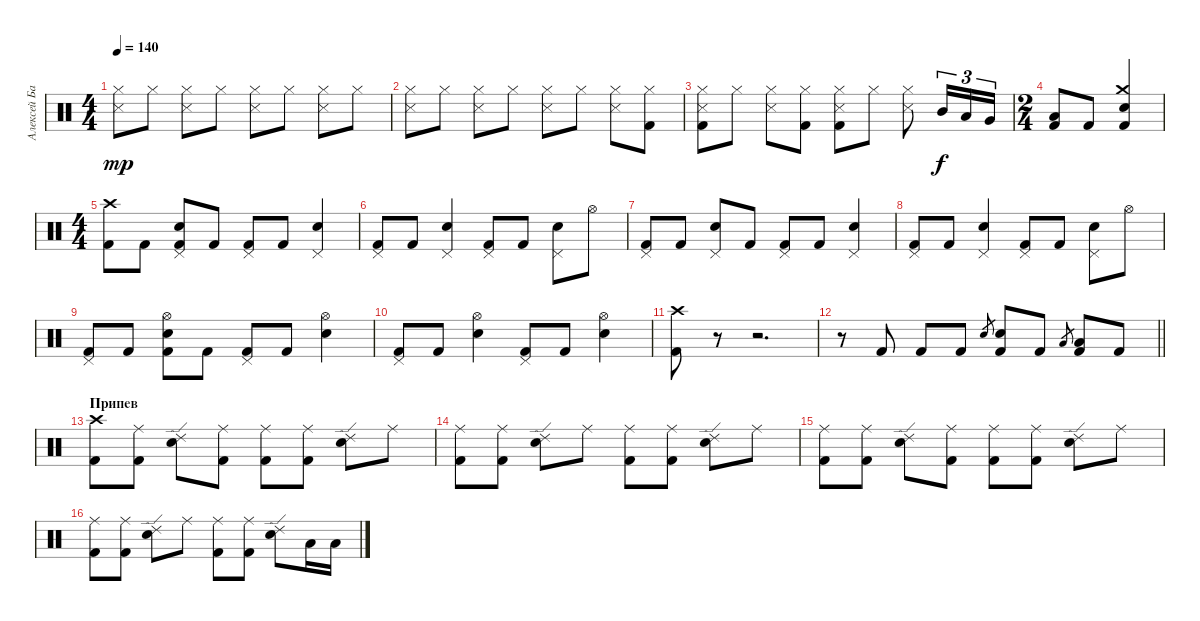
\track ("Алексей Барзилович" "Алексей Ба") {instrument percussion}
\staff {score}
\articulation defaults
\ts (4 4)
\tempo 140
\clef neutral
\ks c
("Hi-Hat (closed)" "Snare (side stick) 3").8{dy mp} "Hi-Hat (closed)".8 ("Hi-Hat (closed)" "Snare (side stick) 3").8 "Hi-Hat (closed)".8 ("Hi-Hat (closed)" "Snare (side stick) 3").8 "Hi-Hat (closed)".8 ("Hi-Hat (closed)" "Snare (side stick) 3").8 "Hi-Hat (closed)".8 |
("Hi-Hat (closed)" "Snare (side stick) 3").8 "Hi-Hat (closed)".8 ("Hi-Hat (closed)" "Snare (side stick) 3").8 "Hi-Hat (closed)".8 ("Hi-Hat (closed)" "Snare (side stick) 3").8 "Hi-Hat (closed)".8 ("Hi-Hat (closed)" "Snare (side stick) 3").8 ("Hi-Hat (closed)" "Kick (hit) 2").8 |
("Hi-Hat (closed)" "Snare (side stick) 3" "Kick (hit) 2").8 "Hi-Hat (closed)".8 ("Hi-Hat (closed)" "Snare (side stick) 3").8 ("Hi-Hat (closed)" "Kick (hit) 2").8 ("Hi-Hat (closed)" "Snare (side stick) 3" "Kick (hit) 2").8 "Hi-Hat (closed)".8 ("Hi-Hat (closed)" "Snare (side stick) 3").8 "Mid Tom (hit)".16{tu (3 2) dy f} "Low Tom (hit)".16{tu (3 2)} "Very Low Tom (hit)".16{tu (3 2)} |
\ts (2 4)
("Low Floor Tom (hit)" "Kick (hit) 2").8 "Kick (hit) 2".8 ("Crash medium (hit)" "Electric Snare (hit)" "Kick (hit) 2").4 |
\ts (4 4)
("Crash high (hit)" "Kick (hit) 2").8 "Kick (hit) 2".8 ("Pedal Hi-Hat (hit)" "Electric Snare (hit)" "Kick (hit) 2").8 "Kick (hit) 2".8 ("Pedal Hi-Hat (hit)" "Kick (hit) 2").8 "Kick (hit) 2".8 ("Pedal Hi-Hat (hit)" "Electric Snare (hit)").4 |
("Pedal Hi-Hat (hit)" "Kick (hit) 2").8 "Kick (hit) 2".8 ("Pedal Hi-Hat (hit)" "Electric Snare (hit)").4 ("Pedal Hi-Hat (hit)" "Kick (hit) 2").8 "Kick (hit) 2".8 ("Pedal Hi-Hat (hit)" "Electric Snare (hit)").8 "Hi-Hat (open)".8 |
("Pedal Hi-Hat (hit)" "Kick (hit) 2").8 "Kick (hit) 2".8 ("Pedal Hi-Hat (hit)" "Electric Snare (hit)").8 "Kick (hit) 2".8 ("Pedal Hi-Hat (hit)" "Kick (hit) 2").8 "Kick (hit) 2".8 ("Pedal Hi-Hat (hit)" "Electric Snare (hit)").4 |
("Pedal Hi-Hat (hit)" "Kick (hit) 2").8 "Kick (hit) 2".8 ("Pedal Hi-Hat (hit)" "Electric Snare (hit)").4 ("Pedal Hi-Hat (hit)" "Kick (hit) 2").8 "Kick (hit) 2".8 ("Pedal Hi-Hat (hit)" "Electric Snare (hit)").8 "Hi-Hat (open)".8 |
("Pedal Hi-Hat (hit)" "Kick (hit) 2").8 "Kick (hit) 2".8 ("Hi-Hat (open)" "Electric Snare (hit)" "Kick (hit) 2").8 "Kick (hit) 2".8 ("Pedal Hi-Hat (hit)" "Kick (hit) 2").8 "Kick (hit) 2".8 ("Hi-Hat (open)" "Electric Snare (hit)").4 |
("Pedal Hi-Hat (hit)" "Kick (hit) 2").8 "Kick (hit) 2".8 ("Hi-Hat (open)" "Electric Snare (hit)").4 ("Pedal Hi-Hat (hit)" "Kick (hit) 2").8 "Kick (hit) 2".8 ("Hi-Hat (open)" "Electric Snare (hit)").4 |
("Crash high (hit)" "Kick (hit) 2").8 r.8{volume 0} r.2{d} |
\barLineRight lightlight
r.8 "Kick (hit) 2".8{volume 16} "Kick (hit) 2".8 "Kick (hit) 2".8 "Electric Snare (hit)".8{gr} ("Electric Snare (hit)" "Kick (hit) 2").8 "Kick (hit) 2".8 "Low Tom (hit)".8{gr} ("Low Tom (hit)" "Kick (hit) 2").8 "Kick (hit) 2".8 |
\section ("" "Припев")
("Crash high (hit)" "Kick (hit) 2").8 ("Ride (middle)" "Kick (hit) 2").8 ("Ride (edge) 2" "Electric Snare (hit)").8 ("Ride (middle)" "Kick (hit) 2").8 ("Ride (middle)" "Kick (hit) 2").8 ("Ride (middle)" "Kick (hit) 2").8 ("Ride (edge) 2" "Electric Snare (hit)").8 "Ride (middle)".8 |
("Ride (middle)" "Kick (hit) 2").8 ("Ride (middle)" "Kick (hit) 2").8 ("Ride (edge) 2" "Electric Snare (hit)").8 "Ride (middle)".8 ("Ride (middle)" "Kick (hit) 2").8 ("Ride (middle)" "Kick (hit) 2").8 ("Ride (edge) 2" "Electric Snare (hit)").8 "Ride (middle)".8 |
("Ride (middle)" "Kick (hit) 2").8 ("Ride (middle)" "Kick (hit) 2").8 ("Ride (edge) 2" "Electric Snare (hit)").8 ("Ride (middle)" "Kick (hit) 2").8 ("Ride (middle)" "Kick (hit) 2").8 ("Ride (middle)" "Kick (hit) 2").8 ("Ride (edge) 2" "Electric Snare (hit)").8 "Ride (middle)".8 |
("Ride (middle)" "Kick (hit) 2").8 ("Ride (middle)" "Kick (hit) 2").8 ("Ride (edge) 2" "Electric Snare (hit)").8 "Ride (middle)".8 ("Ride (middle)" "Kick (hit) 2").8 ("Ride (middle)" "Kick (hit) 2").8 ("Ride (edge) 2" "Electric Snare (hit)").8 "Low Tom (hit)".16 "Low Tom (hit)".16
